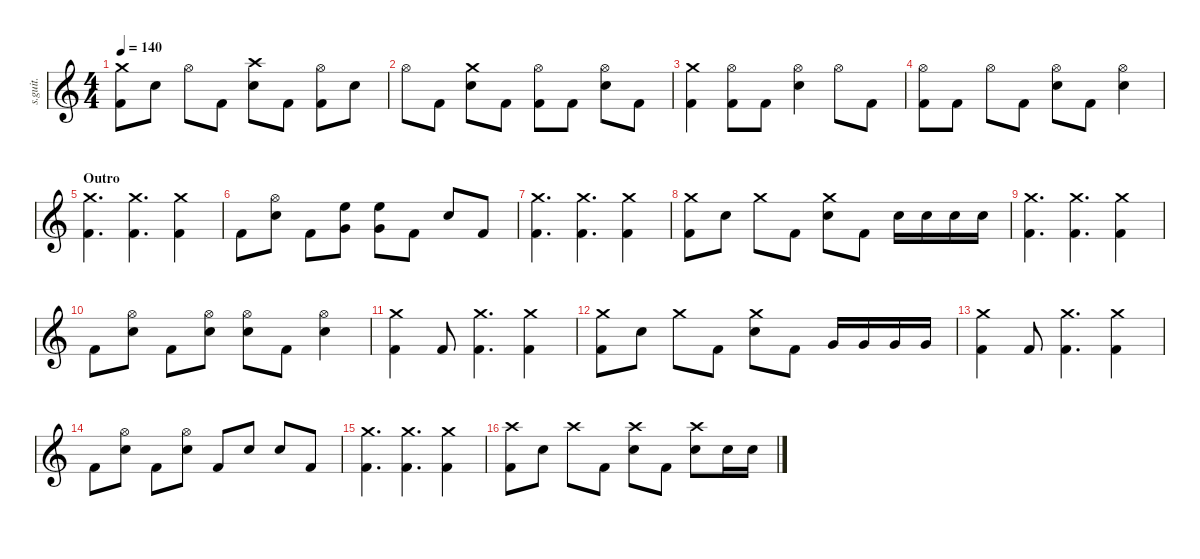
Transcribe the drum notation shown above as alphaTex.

\defaultSystemsLayout 4
\hideDynamics
\bracketExtendMode nobrackets
\track ("Abe Cunningham" "s.guit.") {instrument percussion}
\staff {score}
\articulation defaults
\ts (4 4)
\tempo 140
\clef g2
\ks c
("Crash medium (hit)" "Kick (hit) 2").8{lyrics (0 "") lyrics (1 "") lyrics (2 "") lyrics (3 "") lyrics (4 "") dy fff} "Snare (hit) 2".8{lyrics (0 "") lyrics (1 "") lyrics (2 "") lyrics (3 "") lyrics (4 "")} "Hi-Hat (open)".8{lyrics (0 "") lyrics (1 "") lyrics (2 "") lyrics (3 "") lyrics (4 "")} "Kick (hit) 2".8{lyrics (0 "") lyrics (1 "") lyrics (2 "") lyrics (3 "") lyrics (4 "")} ("Crash high (hit)" "Snare (hit) 2").8{lyrics (0 "") lyrics (1 "") lyrics (2 "") lyrics (3 "") lyrics (4 "")} "Kick (hit) 2".8{lyrics (0 "") lyrics (1 "") lyrics (2 "") lyrics (3 "") lyrics (4 "")} ("Hi-Hat (open)" "Kick (hit) 2").8{lyrics (0 "") lyrics (1 "") lyrics (2 "") lyrics (3 "") lyrics (4 "")} "Snare (hit) 2".8{lyrics (0 "") lyrics (1 "") lyrics (2 "") lyrics (3 "") lyrics (4 "")} |
"Hi-Hat (open)".8{lyrics (0 "") lyrics (1 "") lyrics (2 "") lyrics (3 "") lyrics (4 "")} "Kick (hit) 2".8{lyrics (0 "") lyrics (1 "") lyrics (2 "") lyrics (3 "") lyrics (4 "")} ("Crash medium (hit)" "Snare (hit) 2").8{lyrics (0 "") lyrics (1 "") lyrics (2 "") lyrics (3 "") lyrics (4 "")} "Kick (hit) 2".8{lyrics (0 "") lyrics (1 "") lyrics (2 "") lyrics (3 "") lyrics (4 "")} ("Hi-Hat (open)" "Kick (hit) 2").8{lyrics (0 "") lyrics (1 "") lyrics (2 "") lyrics (3 "") lyrics (4 "")} "Kick (hit) 2".8{lyrics (0 "") lyrics (1 "") lyrics (2 "") lyrics (3 "") lyrics (4 "")} ("Hi-Hat (open)" "Snare (hit) 2").8{lyrics (0 "") lyrics (1 "") lyrics (2 "") lyrics (3 "") lyrics (4 "")} "Kick (hit) 2".8{lyrics (0 "") lyrics (1 "") lyrics (2 "") lyrics (3 "") lyrics (4 "")} |
("Crash medium (hit)" "Kick (hit) 2").4{lyrics (0 "") lyrics (1 "") lyrics (2 "") lyrics (3 "") lyrics (4 "")} ("Hi-Hat (open)" "Kick (hit) 2").8{lyrics (0 "") lyrics (1 "") lyrics (2 "") lyrics (3 "") lyrics (4 "")} "Kick (hit) 2".8{lyrics (0 "") lyrics (1 "") lyrics (2 "") lyrics (3 "") lyrics (4 "")} ("Hi-Hat (open)" "Snare (hit) 2").4{lyrics (0 "") lyrics (1 "") lyrics (2 "") lyrics (3 "") lyrics (4 "")} "Hi-Hat (open)".8{lyrics (0 "") lyrics (1 "") lyrics (2 "") lyrics (3 "") lyrics (4 "")} "Kick (hit) 2".8{lyrics (0 "") lyrics (1 "") lyrics (2 "") lyrics (3 "") lyrics (4 "")} |
("Hi-Hat (open)" "Kick (hit) 2").8{lyrics (0 "") lyrics (1 "") lyrics (2 "") lyrics (3 "") lyrics (4 "")} "Kick (hit) 2".8{lyrics (0 "") lyrics (1 "") lyrics (2 "") lyrics (3 "") lyrics (4 "")} "Hi-Hat (open)".8{lyrics (0 "") lyrics (1 "") lyrics (2 "") lyrics (3 "") lyrics (4 "")} "Kick (hit) 2".8{lyrics (0 "") lyrics (1 "") lyrics (2 "") lyrics (3 "") lyrics (4 "")} ("Hi-Hat (open)" "Snare (hit) 2").8{lyrics (0 "") lyrics (1 "") lyrics (2 "") lyrics (3 "") lyrics (4 "")} "Kick (hit) 2".8{lyrics (0 "") lyrics (1 "") lyrics (2 "") lyrics (3 "") lyrics (4 "")} ("Hi-Hat (open)" "Snare (hit) 2").4{lyrics (0 "") lyrics (1 "") lyrics (2 "") lyrics (3 "") lyrics (4 "")} |
\section ("" "Outro")
("Crash medium (hit)" "Kick (hit) 2").4{d lyrics (0 "") lyrics (1 "") lyrics (2 "") lyrics (3 "") lyrics (4 "")} ("Crash medium (hit)" "Kick (hit) 2").4{d lyrics (0 "") lyrics (1 "") lyrics (2 "") lyrics (3 "") lyrics (4 "")} ("Crash medium (hit)" "Kick (hit) 2").4{lyrics (0 "") lyrics (1 "") lyrics (2 "") lyrics (3 "") lyrics (4 "")} |
"Kick (hit) 2".8{lyrics (0 "") lyrics (1 "") lyrics (2 "") lyrics (3 "") lyrics (4 "")} ("Hi-Hat (open)" "Snare (hit) 2").8{lyrics (0 "") lyrics (1 "") lyrics (2 "") lyrics (3 "") lyrics (4 "")} "Kick (hit) 2".8{lyrics (0 "") lyrics (1 "") lyrics (2 "") lyrics (3 "") lyrics (4 "")} ("High Floor Tom (hit)" "Very Low Tom (hit)").8{lyrics (0 "") lyrics (1 "") lyrics (2 "") lyrics (3 "") lyrics (4 "")} ("High Floor Tom (hit)" "Very Low Tom (hit)").8{lyrics (0 "") lyrics (1 "") lyrics (2 "") lyrics (3 "") lyrics (4 "")} "Kick (hit) 2".8{lyrics (0 "") lyrics (1 "") lyrics (2 "") lyrics (3 "") lyrics (4 "")} "Snare (hit) 2".8{lyrics (0 "") lyrics (1 "") lyrics (2 "") lyrics (3 "") lyrics (4 "")} "Kick (hit) 2".8{lyrics (0 "") lyrics (1 "") lyrics (2 "") lyrics (3 "") lyrics (4 "")} |
("Crash medium (hit)" "Kick (hit) 2").4{d lyrics (0 "") lyrics (1 "") lyrics (2 "") lyrics (3 "") lyrics (4 "")} ("Crash medium (hit)" "Kick (hit) 2").4{d lyrics (0 "") lyrics (1 "") lyrics (2 "") lyrics (3 "") lyrics (4 "")} ("Crash medium (hit)" "Kick (hit) 2").4{lyrics (0 "") lyrics (1 "") lyrics (2 "") lyrics (3 "") lyrics (4 "")} |
("Crash medium (hit)" "Kick (hit) 2").8{lyrics (0 "") lyrics (1 "") lyrics (2 "") lyrics (3 "") lyrics (4 "")} "Snare (hit) 2".8{lyrics (0 "") lyrics (1 "") lyrics (2 "") lyrics (3 "") lyrics (4 "")} "Crash medium (hit)".8{lyrics (0 "") lyrics (1 "") lyrics (2 "") lyrics (3 "") lyrics (4 "")} "Kick (hit) 2".8{lyrics (0 "") lyrics (1 "") lyrics (2 "") lyrics (3 "") lyrics (4 "")} ("Crash medium (hit)" "Snare (hit) 2").8{lyrics (0 "") lyrics (1 "") lyrics (2 "") lyrics (3 "") lyrics (4 "")} "Kick (hit) 2".8{lyrics (0 "") lyrics (1 "") lyrics (2 "") lyrics (3 "") lyrics (4 "")} "Snare (hit) 2".16{lyrics (0 "") lyrics (1 "") lyrics (2 "") lyrics (3 "") lyrics (4 "")} "Snare (hit) 2".16{lyrics (0 "") lyrics (1 "") lyrics (2 "") lyrics (3 "") lyrics (4 "")} "Snare (hit) 2".16{lyrics (0 "") lyrics (1 "") lyrics (2 "") lyrics (3 "") lyrics (4 "")} "Snare (hit) 2".16{lyrics (0 "") lyrics (1 "") lyrics (2 "") lyrics (3 "") lyrics (4 "")} |
("Crash medium (hit)" "Kick (hit) 2").4{d lyrics (0 "") lyrics (1 "") lyrics (2 "") lyrics (3 "") lyrics (4 "")} ("Crash medium (hit)" "Kick (hit) 2").4{d lyrics (0 "") lyrics (1 "") lyrics (2 "") lyrics (3 "") lyrics (4 "")} ("Crash medium (hit)" "Kick (hit) 2").4{lyrics (0 "") lyrics (1 "") lyrics (2 "") lyrics (3 "") lyrics (4 "")} |
"Kick (hit) 2".8{lyrics (0 "") lyrics (1 "") lyrics (2 "") lyrics (3 "") lyrics (4 "")} ("Hi-Hat (open)" "Snare (hit) 2").8{lyrics (0 "") lyrics (1 "") lyrics (2 "") lyrics (3 "") lyrics (4 "")} "Kick (hit) 2".8{lyrics (0 "") lyrics (1 "") lyrics (2 "") lyrics (3 "") lyrics (4 "")} ("Hi-Hat (open)" "Snare (hit) 2").8{lyrics (0 "") lyrics (1 "") lyrics (2 "") lyrics (3 "") lyrics (4 "")} ("Hi-Hat (open)" "Snare (hit) 2").8{lyrics (0 "") lyrics (1 "") lyrics (2 "") lyrics (3 "") lyrics (4 "")} "Kick (hit) 2".8{lyrics (0 "") lyrics (1 "") lyrics (2 "") lyrics (3 "") lyrics (4 "")} ("Hi-Hat (open)" "Snare (hit) 2").4{lyrics (0 "") lyrics (1 "") lyrics (2 "") lyrics (3 "") lyrics (4 "")} |
("Crash medium (hit)" "Kick (hit) 2").4{lyrics (0 "") lyrics (1 "") lyrics (2 "") lyrics (3 "") lyrics (4 "")} "Kick (hit) 2".8{lyrics (0 "") lyrics (1 "") lyrics (2 "") lyrics (3 "") lyrics (4 "")} ("Crash medium (hit)" "Kick (hit) 2").4{d lyrics (0 "") lyrics (1 "") lyrics (2 "") lyrics (3 "") lyrics (4 "")} ("Crash medium (hit)" "Kick (hit) 2").4{lyrics (0 "") lyrics (1 "") lyrics (2 "") lyrics (3 "") lyrics (4 "")} |
("Crash medium (hit)" "Kick (hit) 2").8{lyrics (0 "") lyrics (1 "") lyrics (2 "") lyrics (3 "") lyrics (4 "")} "Snare (hit) 2".8{lyrics (0 "") lyrics (1 "") lyrics (2 "") lyrics (3 "") lyrics (4 "")} "Crash medium (hit)".8{lyrics (0 "") lyrics (1 "") lyrics (2 "") lyrics (3 "") lyrics (4 "")} "Kick (hit) 2".8{lyrics (0 "") lyrics (1 "") lyrics (2 "") lyrics (3 "") lyrics (4 "")} ("Crash medium (hit)" "Snare (hit) 2").8{lyrics (0 "") lyrics (1 "") lyrics (2 "") lyrics (3 "") lyrics (4 "")} "Kick (hit) 2".8{lyrics (0 "") lyrics (1 "") lyrics (2 "") lyrics (3 "") lyrics (4 "")} "Very Low Tom (hit)".16{lyrics (0 "") lyrics (1 "") lyrics (2 "") lyrics (3 "") lyrics (4 "")} "Very Low Tom (hit)".16{lyrics (0 "") lyrics (1 "") lyrics (2 "") lyrics (3 "") lyrics (4 "")} "Very Low Tom (hit)".16{lyrics (0 "") lyrics (1 "") lyrics (2 "") lyrics (3 "") lyrics (4 "")} "Very Low Tom (hit)".16{lyrics (0 "") lyrics (1 "") lyrics (2 "") lyrics (3 "") lyrics (4 "")} |
("Crash medium (hit)" "Kick (hit) 2").4{lyrics (0 "") lyrics (1 "") lyrics (2 "") lyrics (3 "") lyrics (4 "")} "Kick (hit) 2".8{lyrics (0 "") lyrics (1 "") lyrics (2 "") lyrics (3 "") lyrics (4 "")} ("Crash medium (hit)" "Kick (hit) 2").4{d lyrics (0 "") lyrics (1 "") lyrics (2 "") lyrics (3 "") lyrics (4 "")} ("Crash medium (hit)" "Kick (hit) 2").4{lyrics (0 "") lyrics (1 "") lyrics (2 "") lyrics (3 "") lyrics (4 "")} |
"Kick (hit) 2".8{lyrics (0 "") lyrics (1 "") lyrics (2 "") lyrics (3 "") lyrics (4 "")} ("Hi-Hat (open)" "Snare (hit) 2").8{lyrics (0 "") lyrics (1 "") lyrics (2 "") lyrics (3 "") lyrics (4 "")} "Kick (hit) 2".8{lyrics (0 "") lyrics (1 "") lyrics (2 "") lyrics (3 "") lyrics (4 "")} ("Hi-Hat (open)" "Snare (hit) 2").8{lyrics (0 "") lyrics (1 "") lyrics (2 "") lyrics (3 "") lyrics (4 "")} "Kick (hit) 2".8{lyrics (0 "") lyrics (1 "") lyrics (2 "") lyrics (3 "") lyrics (4 "")} "Snare (hit) 2".8{lyrics (0 "") lyrics (1 "") lyrics (2 "") lyrics (3 "") lyrics (4 "")} "Snare (hit) 2".8{lyrics (0 "") lyrics (1 "") lyrics (2 "") lyrics (3 "") lyrics (4 "")} "Kick (hit) 2".8{lyrics (0 "") lyrics (1 "") lyrics (2 "") lyrics (3 "") lyrics (4 "")} |
("Crash medium (hit)" "Kick (hit) 2").4{d lyrics (0 "") lyrics (1 "") lyrics (2 "") lyrics (3 "") lyrics (4 "")} ("Crash medium (hit)" "Kick (hit) 2").4{d lyrics (0 "") lyrics (1 "") lyrics (2 "") lyrics (3 "") lyrics (4 "")} ("Crash medium (hit)" "Kick (hit) 2").4{lyrics (0 "") lyrics (1 "") lyrics (2 "") lyrics (3 "") lyrics (4 "")} |
("Crash high (hit)" "Kick (hit) 2").8{lyrics (0 "") lyrics (1 "") lyrics (2 "") lyrics (3 "") lyrics (4 "")} "Snare (hit) 2".8{lyrics (0 "") lyrics (1 "") lyrics (2 "") lyrics (3 "") lyrics (4 "")} "Crash high (hit)".8{lyrics (0 "") lyrics (1 "") lyrics (2 "") lyrics (3 "") lyrics (4 "")} "Kick (hit) 2".8{lyrics (0 "") lyrics (1 "") lyrics (2 "") lyrics (3 "") lyrics (4 "")} ("Crash high (hit)" "Snare (hit) 2").8{lyrics (0 "") lyrics (1 "") lyrics (2 "") lyrics (3 "") lyrics (4 "")} "Kick (hit) 2".8{lyrics (0 "") lyrics (1 "") lyrics (2 "") lyrics (3 "") lyrics (4 "")} ("Crash high (hit)" "Snare (hit) 2").8{lyrics (0 "") lyrics (1 "") lyrics (2 "") lyrics (3 "") lyrics (4 "")} "Snare (hit) 2".16{lyrics (0 "") lyrics (1 "") lyrics (2 "") lyrics (3 "") lyrics (4 "")} "Snare (hit) 2".16{lyrics (0 "") lyrics (1 "") lyrics (2 "") lyrics (3 "") lyrics (4 "")}
